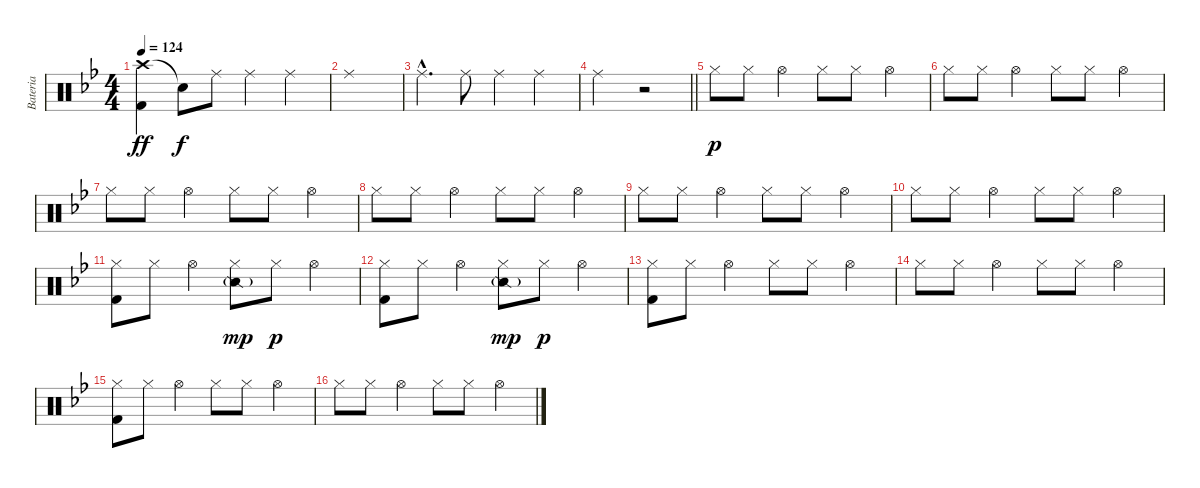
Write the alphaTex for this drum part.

\track ("Bateria" "Bateria") {instrument percussion}
\staff {score}
\articulation defaults
\ts (4 4)
\tempo 124
\clef neutral
\ks bb
("Crash high (hit)" "Kick (hit) 2").4{dy ff} "Snare (hit)"{t}.8{dy f} "Ride (middle)".8 "Ride (middle)".4 "Ride (middle)".4 |
"Ride (middle)".1 |
"Ride (middle)"{hac}.4{d} "Ride (middle)".8 "Ride (middle)".4 "Ride (middle)".4 |
\barLineRight lightlight "Ride (middle)".2
r.2 |
"Hi-Hat (closed)".8{dy p} "Hi-Hat (closed)".8 "Hi-Hat (open)".4 "Hi-Hat (closed)".8 "Hi-Hat (closed)".8 "Hi-Hat (open)".4 |
"Hi-Hat (closed)".8 "Hi-Hat (closed)".8 "Hi-Hat (open)".4 "Hi-Hat (closed)".8 "Hi-Hat (closed)".8 "Hi-Hat (open)".4 |
"Hi-Hat (closed)".8 "Hi-Hat (closed)".8 "Hi-Hat (open)".4 "Hi-Hat (closed)".8 "Hi-Hat (closed)".8 "Hi-Hat (open)".4 |
"Hi-Hat (closed)".8 "Hi-Hat (closed)".8 "Hi-Hat (open)".4 "Hi-Hat (closed)".8 "Hi-Hat (closed)".8 "Hi-Hat (open)".4 |
"Hi-Hat (closed)".8 "Hi-Hat (closed)".8 "Hi-Hat (open)".4 "Hi-Hat (closed)".8 "Hi-Hat (closed)".8 "Hi-Hat (open)".4 |
"Hi-Hat (closed)".8 "Hi-Hat (closed)".8 "Hi-Hat (open)".4 "Hi-Hat (closed)".8 "Hi-Hat (closed)".8 "Hi-Hat (open)".4 |
("Hi-Hat (closed)" "Kick (hit) 2").8 "Hi-Hat (closed)".8 "Hi-Hat (open)".4 ("Hi-Hat (closed)" "Snare (side stick) 2"{g}).8{dy mp} "Hi-Hat (closed)".8{dy p} "Hi-Hat (open)".4 |
("Hi-Hat (closed)" "Kick (hit) 2").8 "Hi-Hat (closed)".8 "Hi-Hat (open)".4 ("Hi-Hat (closed)" "Snare (side stick) 2"{g}).8{dy mp} "Hi-Hat (closed)".8{dy p} "Hi-Hat (open)".4 |
("Hi-Hat (closed)" "Kick (hit) 2").8 "Hi-Hat (closed)".8 "Hi-Hat (open)".4 "Hi-Hat (closed)".8 "Hi-Hat (closed)".8 "Hi-Hat (open)".4 |
"Hi-Hat (closed)".8 "Hi-Hat (closed)".8 "Hi-Hat (open)".4 "Hi-Hat (closed)".8 "Hi-Hat (closed)".8 "Hi-Hat (open)".4 |
("Hi-Hat (closed)" "Kick (hit) 2").8 "Hi-Hat (closed)".8 "Hi-Hat (open)".4 "Hi-Hat (closed)".8 "Hi-Hat (closed)".8 "Hi-Hat (open)".4 |
"Hi-Hat (closed)".8 "Hi-Hat (closed)".8 "Hi-Hat (open)".4 "Hi-Hat (closed)".8 "Hi-Hat (closed)".8 "Hi-Hat (open)".4
